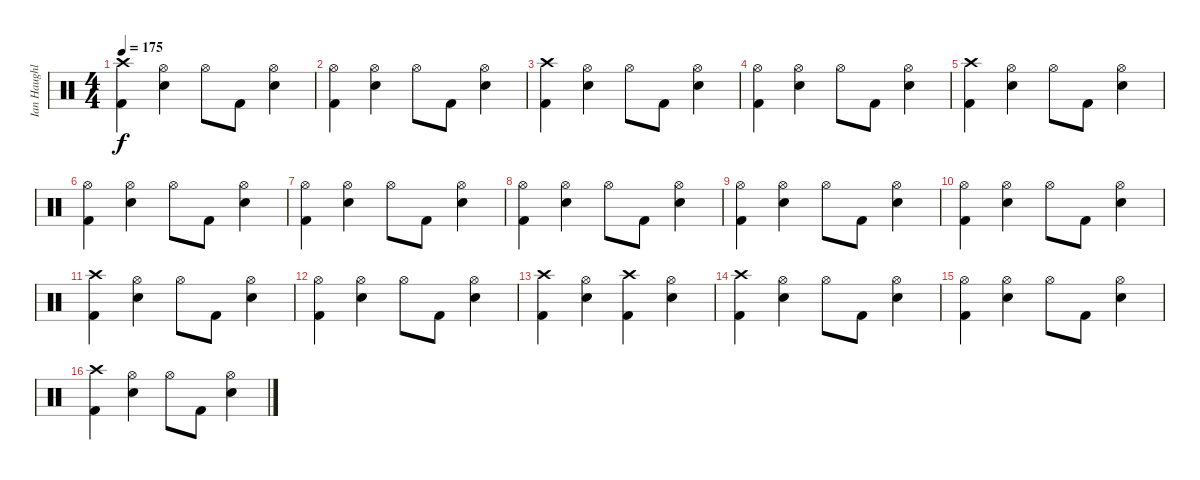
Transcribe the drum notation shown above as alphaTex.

\track ("Ian Haughland" "Ian Haughl") {instrument percussion}
\staff {score}
\articulation defaults
\ts (4 4)
\tempo 175
\clef neutral
\ks c
("Crash high (hit)" "Kick (hit) 2").4{dy f} ("Hi-Hat (open)" "Snare (hit) 2").4 "Hi-Hat (open)".8 "Kick (hit) 2".8 ("Hi-Hat (open)" "Snare (hit) 2").4 |
("Hi-Hat (open)" "Kick (hit) 2").4 ("Hi-Hat (open)" "Snare (hit) 2").4 "Hi-Hat (open)".8 "Kick (hit) 2".8 ("Hi-Hat (open)" "Snare (hit) 2").4 |
("Crash high (hit)" "Kick (hit) 2").4 ("Hi-Hat (open)" "Snare (hit) 2").4 "Hi-Hat (open)".8 "Kick (hit) 2".8 ("Hi-Hat (open)" "Snare (hit) 2").4 |
("Hi-Hat (open)" "Kick (hit) 2").4 ("Hi-Hat (open)" "Snare (hit) 2").4 "Hi-Hat (open)".8 "Kick (hit) 2".8 ("Hi-Hat (open)" "Snare (hit) 2").4 |
("Crash high (hit)" "Kick (hit) 2").4 ("Hi-Hat (open)" "Snare (hit) 2").4 "Hi-Hat (open)".8 "Kick (hit) 2".8 ("Hi-Hat (open)" "Snare (hit) 2").4 |
("Hi-Hat (open)" "Kick (hit) 2").4 ("Hi-Hat (open)" "Snare (hit) 2").4 "Hi-Hat (open)".8 "Kick (hit) 2".8 ("Hi-Hat (open)" "Snare (hit) 2").4 |
("Hi-Hat (open)" "Kick (hit) 2").4 ("Hi-Hat (open)" "Snare (hit) 2").4 "Hi-Hat (open)".8 "Kick (hit) 2".8 ("Hi-Hat (open)" "Snare (hit) 2").4 |
("Hi-Hat (open)" "Kick (hit) 2").4 ("Hi-Hat (open)" "Snare (hit) 2").4 "Hi-Hat (open)".8 "Kick (hit) 2".8 ("Hi-Hat (open)" "Snare (hit) 2").4 |
("Hi-Hat (open)" "Kick (hit) 2").4 ("Hi-Hat (open)" "Snare (hit) 2").4 "Hi-Hat (open)".8 "Kick (hit) 2".8 ("Hi-Hat (open)" "Snare (hit) 2").4 |
("Hi-Hat (open)" "Kick (hit) 2").4 ("Hi-Hat (open)" "Snare (hit) 2").4 "Hi-Hat (open)".8 "Kick (hit) 2".8 ("Hi-Hat (open)" "Snare (hit) 2").4 |
("Crash high (hit)" "Kick (hit) 2").4 ("Hi-Hat (open)" "Snare (hit) 2").4 "Hi-Hat (open)".8 "Kick (hit) 2".8 ("Hi-Hat (open)" "Snare (hit) 2").4 |
("Hi-Hat (open)" "Kick (hit) 2").4 ("Hi-Hat (open)" "Snare (hit) 2").4 "Hi-Hat (open)".8 "Kick (hit) 2".8 ("Hi-Hat (open)" "Snare (hit) 2").4 |
("Crash high (hit)" "Kick (hit) 2").4 ("Hi-Hat (open)" "Snare (hit) 2").4 ("Crash high (hit)" "Kick (hit) 2").4 ("Hi-Hat (open)" "Snare (hit) 2").4 |
("Crash high (hit)" "Kick (hit) 2").4 ("Hi-Hat (open)" "Snare (hit) 2").4 "Hi-Hat (open)".8 "Kick (hit) 2".8 ("Hi-Hat (open)" "Snare (hit) 2").4 |
("Hi-Hat (open)" "Kick (hit) 2").4 ("Hi-Hat (open)" "Snare (hit) 2").4 "Hi-Hat (open)".8 "Kick (hit) 2".8 ("Hi-Hat (open)" "Snare (hit) 2").4 |
("Crash high (hit)" "Kick (hit) 2").4 ("Hi-Hat (open)" "Snare (hit) 2").4 "Hi-Hat (open)".8 "Kick (hit) 2".8 ("Hi-Hat (open)" "Snare (hit) 2").4
